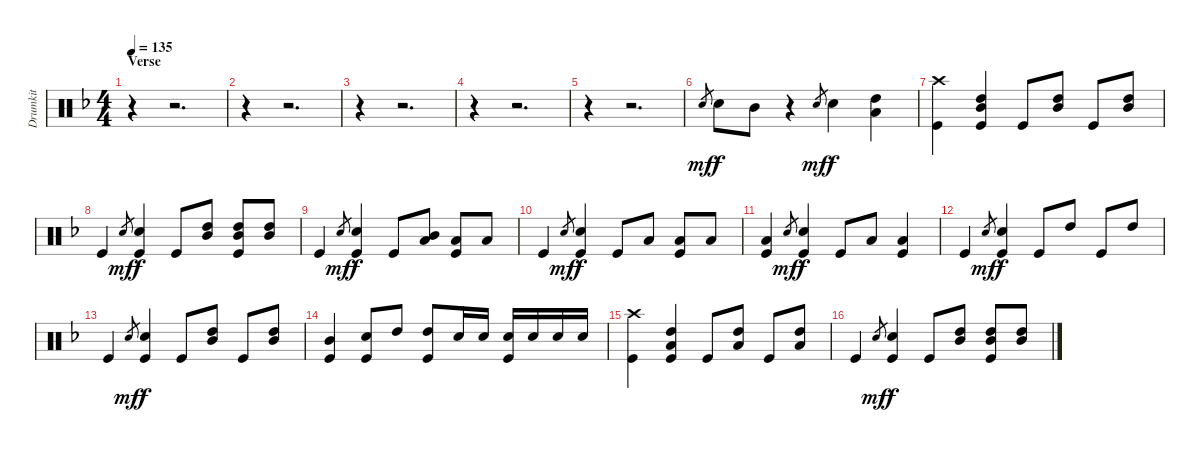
\track ("Drumkit" "Drumkit") {instrument percussion}
\staff {score}
\articulation defaults
\ts (4 4)
\section ("" "Verse")
\tempo 135
\clef neutral
\ks f
r.4{dy mf} r.2{d} |
r.4 r.2{d} |
r.4 r.2{d} |
r.4 r.2{d} |
r.4 r.2{d} |
"Snare (hit)".8{gr} "Snare (hit) 2".8{dy f} "Mid Tom (hit)".8 r.4 "Snare (hit)".8{gr dy mf} "Snare (hit) 2".4{dy f} ("High Tom (hit)" "Low Tom (hit)").4 |
("Crash high (hit)" "Kick (hit)").4 ("High Tom (hit)" "Mid Tom (hit)" "Kick (hit)").4 "Kick (hit)".8 ("High Tom (hit)" "Mid Tom (hit)").8 "Kick (hit)".8 ("High Tom (hit)" "Mid Tom (hit)").8 |
"Kick (hit)".4 "Snare (hit)".8{gr dy mf} ("Snare (hit) 2" "Kick (hit)").4{dy f} "Kick (hit)".8 ("High Tom (hit)" "Mid Tom (hit)").8 ("High Tom (hit)" "Mid Tom (hit)" "Kick (hit)").8 ("High Tom (hit)" "Mid Tom (hit)").8 |
"Kick (hit)".4 "Snare (hit)".8{gr dy mf} ("Snare (hit) 2" "Kick (hit)").4{dy f} "Kick (hit)".8 ("Mid Tom (hit)" "Low Tom (hit)").8 ("Low Tom (hit)" "Kick (hit)").8 "Low Tom (hit)".8 |
"Kick (hit)".4 "Snare (hit)".8{gr dy mf} ("Snare (hit) 2" "Kick (hit)").4{dy f} "Kick (hit)".8 "Low Tom (hit)".8 ("Low Tom (hit)" "Kick (hit)").8 "Low Tom (hit)".8 |
("Low Tom (hit)" "Kick (hit)").4 "Snare (hit)".8{gr dy mf} ("Snare (hit) 2" "Kick (hit)").4{dy f} "Kick (hit)".8 "Low Tom (hit)".8 ("Low Tom (hit)" "Kick (hit)").4 |
"Kick (hit)".4 "Snare (hit)".8{gr dy mf} ("Snare (hit) 2" "Kick (hit)").4{dy f} "Kick (hit)".8 "High Tom (hit)".8 "Kick (hit)".8 "High Tom (hit)".8 |
"Kick (hit)".4 "Snare (hit)".8{gr dy mf} ("Snare (hit) 2" "Kick (hit)").4{dy f} "Kick (hit)".8 ("High Tom (hit)" "Mid Tom (hit)").8 "Kick (hit)".8 ("High Tom (hit)" "Mid Tom (hit)").8 |
("Mid Tom (hit)" "Kick (hit)").4 ("Snare (hit) 2" "Kick (hit)").8 "High Tom (hit)".8 ("High Tom (hit)" "Kick (hit)").8 "Snare (hit) 2".16 "Snare (hit) 2".16 ("Snare (hit) 2" "Kick (hit)").16 "Snare (hit) 2".16 "Snare (hit) 2".16 "Snare (hit) 2".16 |
("Crash high (hit)" "Kick (hit)").4 ("High Tom (hit)" "Low Tom (hit)" "Kick (hit)").4 "Kick (hit)".8 ("High Tom (hit)" "Low Tom (hit)").8 "Kick (hit)".8 ("High Tom (hit)" "Low Tom (hit)").8 |
"Kick (hit)".4 "Snare (hit)".8{gr dy mf} ("Snare (hit) 2" "Kick (hit)").4{dy f} "Kick (hit)".8 ("High Tom (hit)" "Mid Tom (hit)").8 ("High Tom (hit)" "Mid Tom (hit)" "Kick (hit)").8 ("High Tom (hit)" "Mid Tom (hit)").8
